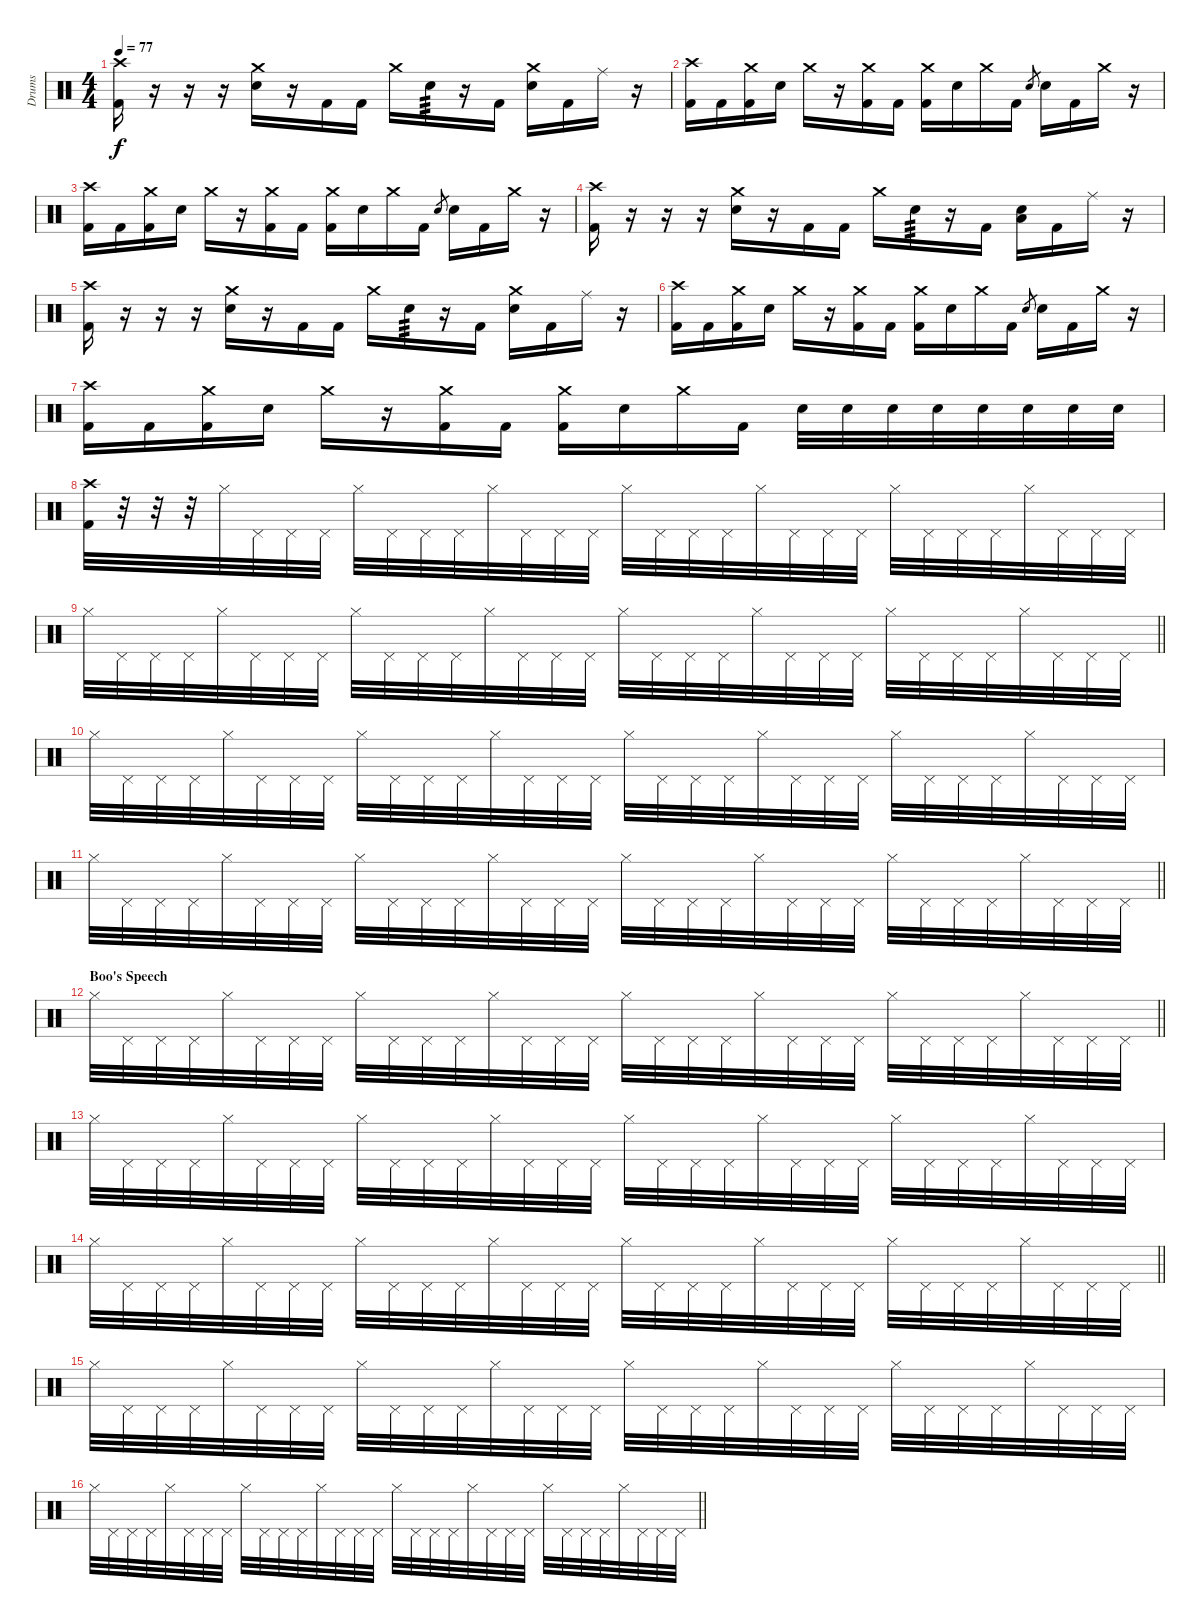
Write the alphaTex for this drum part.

\track ("Drums" "Drums") {instrument percussion}
\staff {score}
\articulation defaults
\ts (4 4)
\tempo 77
\clef neutral
\ks c
("Crash high (hit)" "Kick (hit) 2").16{dy f} r.16 r.16 r.16 ("Crash medium (hit)" "Snare (hit) 2").16 r.16 "Kick (hit) 2".16 "Kick (hit) 2".16 "Crash medium (hit)".16 "Snare (hit) 2".16{tp 3} r.16 "Kick (hit) 2".16 ("Crash medium (hit)" "Snare (hit) 2").16 "Kick (hit) 2".16 "Ride (middle)".16 r.16 |
("Crash high (hit)" "Kick (hit) 2").16 "Kick (hit) 2".16 ("Crash medium (hit)" "Kick (hit) 2").16 "Snare (hit) 2".16 "Crash medium (hit)".16 r.16 ("Crash medium (hit)" "Kick (hit) 2").16 "Kick (hit) 2".16 ("Crash medium (hit)" "Kick (hit) 2").16 "Snare (hit) 2".16 "Crash medium (hit)".16 "Kick (hit) 2".16 "Snare (hit) 2".8{gr} "Snare (hit) 2".16 "Kick (hit) 2".16 "Crash medium (hit)".16 r.16 |
("Crash high (hit)" "Kick (hit) 2").16 "Kick (hit) 2".16 ("Crash medium (hit)" "Kick (hit) 2").16 "Snare (hit) 2".16 "Crash medium (hit)".16 r.16 ("Crash medium (hit)" "Kick (hit) 2").16 "Kick (hit) 2".16 ("Crash medium (hit)" "Kick (hit) 2").16 "Snare (hit) 2".16 "Crash medium (hit)".16 "Kick (hit) 2".16 "Snare (hit) 2".8{gr} "Snare (hit) 2".16 "Kick (hit) 2".16 "Crash medium (hit)".16 r.16 |
("Crash high (hit)" "Kick (hit) 2").16 r.16 r.16 r.16 ("Crash medium (hit)" "Snare (hit) 2").16 r.16 "Kick (hit) 2".16 "Kick (hit) 2".16 "Crash medium (hit)".16 "Snare (hit) 2".16{tp 3} r.16 "Kick (hit) 2".16 ("Low Floor Tom (hit)" "Snare (hit) 2").16 "Kick (hit) 2".16 "Ride (middle)".16 r.16 |
("Crash high (hit)" "Kick (hit) 2").16 r.16 r.16 r.16 ("Crash medium (hit)" "Snare (hit) 2").16 r.16 "Kick (hit) 2".16 "Kick (hit) 2".16 "Crash medium (hit)".16 "Snare (hit) 2".16{tp 3} r.16 "Kick (hit) 2".16 ("Crash medium (hit)" "Snare (hit) 2").16 "Kick (hit) 2".16 "Ride (middle)".16 r.16 |
("Crash high (hit)" "Kick (hit) 2").16 "Kick (hit) 2".16 ("Crash medium (hit)" "Kick (hit) 2").16 "Snare (hit) 2".16 "Crash medium (hit)".16 r.16 ("Crash medium (hit)" "Kick (hit) 2").16 "Kick (hit) 2".16 ("Crash medium (hit)" "Kick (hit) 2").16 "Snare (hit) 2".16 "Crash medium (hit)".16 "Kick (hit) 2".16 "Snare (hit) 2".8{gr} "Snare (hit) 2".16 "Kick (hit) 2".16 "Crash medium (hit)".16 r.16 |
("Crash high (hit)" "Kick (hit) 2").16 "Kick (hit) 2".16 ("Crash medium (hit)" "Kick (hit) 2").16 "Snare (hit) 2".16 "Crash medium (hit)".16 r.16 ("Crash medium (hit)" "Kick (hit) 2").16 "Kick (hit) 2".16 ("Crash medium (hit)" "Kick (hit) 2").16 "Snare (hit) 2".16 "Crash medium (hit)".16 "Kick (hit) 2".16 "Snare (hit) 2".32 "Snare (hit) 2".32 "Snare (hit) 2".32 "Snare (hit) 2".32 "Snare (hit) 2".32 "Snare (hit) 2".32 "Snare (hit) 2".32 "Snare (hit) 2".32 |
("Crash high (hit)" "Kick (hit) 2").32 r.32 r.32 r.32 "Hi-Hat (closed)".32 "Pedal Hi-Hat (hit)".32 "Pedal Hi-Hat (hit)".32 "Pedal Hi-Hat (hit)".32 "Hi-Hat (closed)".32 "Pedal Hi-Hat (hit)".32 "Pedal Hi-Hat (hit)".32 "Pedal Hi-Hat (hit)".32 "Hi-Hat (closed)".32 "Pedal Hi-Hat (hit)".32 "Pedal Hi-Hat (hit)".32 "Pedal Hi-Hat (hit)".32 "Hi-Hat (closed)".32 "Pedal Hi-Hat (hit)".32 "Pedal Hi-Hat (hit)".32 "Pedal Hi-Hat (hit)".32 "Hi-Hat (closed)".32 "Pedal Hi-Hat (hit)".32 "Pedal Hi-Hat (hit)".32 "Pedal Hi-Hat (hit)".32 "Hi-Hat (closed)".32 "Pedal Hi-Hat (hit)".32 "Pedal Hi-Hat (hit)".32 "Pedal Hi-Hat (hit)".32 "Hi-Hat (closed)".32 "Pedal Hi-Hat (hit)".32 "Pedal Hi-Hat (hit)".32 "Pedal Hi-Hat (hit)".32 |
\barLineRight lightlight "Hi-Hat (closed)".32 "Pedal Hi-Hat (hit)".32 "Pedal Hi-Hat (hit)".32 "Pedal Hi-Hat (hit)".32 "Hi-Hat (closed)".32 "Pedal Hi-Hat (hit)".32 "Pedal Hi-Hat (hit)".32 "Pedal Hi-Hat (hit)".32 "Hi-Hat (closed)".32 "Pedal Hi-Hat (hit)".32 "Pedal Hi-Hat (hit)".32 "Pedal Hi-Hat (hit)".32 "Hi-Hat (closed)".32 "Pedal Hi-Hat (hit)".32 "Pedal Hi-Hat (hit)".32 "Pedal Hi-Hat (hit)".32 "Hi-Hat (closed)".32 "Pedal Hi-Hat (hit)".32 "Pedal Hi-Hat (hit)".32 "Pedal Hi-Hat (hit)".32 "Hi-Hat (closed)".32 "Pedal Hi-Hat (hit)".32 "Pedal Hi-Hat (hit)".32 "Pedal Hi-Hat (hit)".32 "Hi-Hat (closed)".32 "Pedal Hi-Hat (hit)".32 "Pedal Hi-Hat (hit)".32 "Pedal Hi-Hat (hit)".32 "Hi-Hat (closed)".32 "Pedal Hi-Hat (hit)".32 "Pedal Hi-Hat (hit)".32 "Pedal Hi-Hat (hit)".32
|
"Hi-Hat (closed)".32 "Pedal Hi-Hat (hit)".32 "Pedal Hi-Hat (hit)".32 "Pedal Hi-Hat (hit)".32 "Hi-Hat (closed)".32 "Pedal Hi-Hat (hit)".32 "Pedal Hi-Hat (hit)".32 "Pedal Hi-Hat (hit)".32 "Hi-Hat (closed)".32 "Pedal Hi-Hat (hit)".32 "Pedal Hi-Hat (hit)".32 "Pedal Hi-Hat (hit)".32 "Hi-Hat (closed)".32 "Pedal Hi-Hat (hit)".32 "Pedal Hi-Hat (hit)".32 "Pedal Hi-Hat (hit)".32 "Hi-Hat (closed)".32 "Pedal Hi-Hat (hit)".32 "Pedal Hi-Hat (hit)".32 "Pedal Hi-Hat (hit)".32 "Hi-Hat (closed)".32 "Pedal Hi-Hat (hit)".32 "Pedal Hi-Hat (hit)".32 "Pedal Hi-Hat (hit)".32 "Hi-Hat (closed)".32 "Pedal Hi-Hat (hit)".32 "Pedal Hi-Hat (hit)".32 "Pedal Hi-Hat (hit)".32 "Hi-Hat (closed)".32 "Pedal Hi-Hat (hit)".32 "Pedal Hi-Hat (hit)".32 "Pedal Hi-Hat (hit)".32 |
\barLineRight lightlight "Hi-Hat (closed)".32 "Pedal Hi-Hat (hit)".32 "Pedal Hi-Hat (hit)".32 "Pedal Hi-Hat (hit)".32 "Hi-Hat (closed)".32 "Pedal Hi-Hat (hit)".32 "Pedal Hi-Hat (hit)".32 "Pedal Hi-Hat (hit)".32 "Hi-Hat (closed)".32 "Pedal Hi-Hat (hit)".32 "Pedal Hi-Hat (hit)".32 "Pedal Hi-Hat (hit)".32 "Hi-Hat (closed)".32 "Pedal Hi-Hat (hit)".32 "Pedal Hi-Hat (hit)".32 "Pedal Hi-Hat (hit)".32 "Hi-Hat (closed)".32 "Pedal Hi-Hat (hit)".32 "Pedal Hi-Hat (hit)".32 "Pedal Hi-Hat (hit)".32 "Hi-Hat (closed)".32 "Pedal Hi-Hat (hit)".32 "Pedal Hi-Hat (hit)".32 "Pedal Hi-Hat (hit)".32 "Hi-Hat (closed)".32 "Pedal Hi-Hat (hit)".32 "Pedal Hi-Hat (hit)".32 "Pedal Hi-Hat (hit)".32 "Hi-Hat (closed)".32 "Pedal Hi-Hat (hit)".32 "Pedal Hi-Hat (hit)".32 "Pedal Hi-Hat (hit)".32
|
\section ("" "Boo's Speech")
\barLineRight lightlight "Hi-Hat (closed)".32 "Pedal Hi-Hat (hit)".32 "Pedal Hi-Hat (hit)".32 "Pedal Hi-Hat (hit)".32 "Hi-Hat (closed)".32 "Pedal Hi-Hat (hit)".32 "Pedal Hi-Hat (hit)".32 "Pedal Hi-Hat (hit)".32 "Hi-Hat (closed)".32 "Pedal Hi-Hat (hit)".32 "Pedal Hi-Hat (hit)".32 "Pedal Hi-Hat (hit)".32 "Hi-Hat (closed)".32 "Pedal Hi-Hat (hit)".32 "Pedal Hi-Hat (hit)".32 "Pedal Hi-Hat (hit)".32 "Hi-Hat (closed)".32 "Pedal Hi-Hat (hit)".32 "Pedal Hi-Hat (hit)".32 "Pedal Hi-Hat (hit)".32 "Hi-Hat (closed)".32 "Pedal Hi-Hat (hit)".32 "Pedal Hi-Hat (hit)".32 "Pedal Hi-Hat (hit)".32 "Hi-Hat (closed)".32 "Pedal Hi-Hat (hit)".32 "Pedal Hi-Hat (hit)".32 "Pedal Hi-Hat (hit)".32 "Hi-Hat (closed)".32 "Pedal Hi-Hat (hit)".32 "Pedal Hi-Hat (hit)".32 "Pedal Hi-Hat (hit)".32
|
"Hi-Hat (closed)".32 "Pedal Hi-Hat (hit)".32 "Pedal Hi-Hat (hit)".32 "Pedal Hi-Hat (hit)".32 "Hi-Hat (closed)".32 "Pedal Hi-Hat (hit)".32 "Pedal Hi-Hat (hit)".32 "Pedal Hi-Hat (hit)".32 "Hi-Hat (closed)".32 "Pedal Hi-Hat (hit)".32 "Pedal Hi-Hat (hit)".32 "Pedal Hi-Hat (hit)".32 "Hi-Hat (closed)".32 "Pedal Hi-Hat (hit)".32 "Pedal Hi-Hat (hit)".32 "Pedal Hi-Hat (hit)".32 "Hi-Hat (closed)".32 "Pedal Hi-Hat (hit)".32 "Pedal Hi-Hat (hit)".32 "Pedal Hi-Hat (hit)".32 "Hi-Hat (closed)".32 "Pedal Hi-Hat (hit)".32 "Pedal Hi-Hat (hit)".32 "Pedal Hi-Hat (hit)".32 "Hi-Hat (closed)".32 "Pedal Hi-Hat (hit)".32 "Pedal Hi-Hat (hit)".32 "Pedal Hi-Hat (hit)".32 "Hi-Hat (closed)".32 "Pedal Hi-Hat (hit)".32 "Pedal Hi-Hat (hit)".32 "Pedal Hi-Hat (hit)".32 |
\barLineRight lightlight "Hi-Hat (closed)".32 "Pedal Hi-Hat (hit)".32 "Pedal Hi-Hat (hit)".32 "Pedal Hi-Hat (hit)".32 "Hi-Hat (closed)".32 "Pedal Hi-Hat (hit)".32 "Pedal Hi-Hat (hit)".32 "Pedal Hi-Hat (hit)".32 "Hi-Hat (closed)".32 "Pedal Hi-Hat (hit)".32 "Pedal Hi-Hat (hit)".32 "Pedal Hi-Hat (hit)".32 "Hi-Hat (closed)".32 "Pedal Hi-Hat (hit)".32 "Pedal Hi-Hat (hit)".32 "Pedal Hi-Hat (hit)".32 "Hi-Hat (closed)".32 "Pedal Hi-Hat (hit)".32 "Pedal Hi-Hat (hit)".32 "Pedal Hi-Hat (hit)".32 "Hi-Hat (closed)".32 "Pedal Hi-Hat (hit)".32 "Pedal Hi-Hat (hit)".32 "Pedal Hi-Hat (hit)".32 "Hi-Hat (closed)".32 "Pedal Hi-Hat (hit)".32 "Pedal Hi-Hat (hit)".32 "Pedal Hi-Hat (hit)".32 "Hi-Hat (closed)".32 "Pedal Hi-Hat (hit)".32 "Pedal Hi-Hat (hit)".32 "Pedal Hi-Hat (hit)".32
|
"Hi-Hat (closed)".32 "Pedal Hi-Hat (hit)".32 "Pedal Hi-Hat (hit)".32 "Pedal Hi-Hat (hit)".32 "Hi-Hat (closed)".32 "Pedal Hi-Hat (hit)".32 "Pedal Hi-Hat (hit)".32 "Pedal Hi-Hat (hit)".32 "Hi-Hat (closed)".32 "Pedal Hi-Hat (hit)".32 "Pedal Hi-Hat (hit)".32 "Pedal Hi-Hat (hit)".32 "Hi-Hat (closed)".32 "Pedal Hi-Hat (hit)".32 "Pedal Hi-Hat (hit)".32 "Pedal Hi-Hat (hit)".32 "Hi-Hat (closed)".32 "Pedal Hi-Hat (hit)".32 "Pedal Hi-Hat (hit)".32 "Pedal Hi-Hat (hit)".32 "Hi-Hat (closed)".32 "Pedal Hi-Hat (hit)".32 "Pedal Hi-Hat (hit)".32 "Pedal Hi-Hat (hit)".32 "Hi-Hat (closed)".32 "Pedal Hi-Hat (hit)".32 "Pedal Hi-Hat (hit)".32 "Pedal Hi-Hat (hit)".32 "Hi-Hat (closed)".32 "Pedal Hi-Hat (hit)".32 "Pedal Hi-Hat (hit)".32 "Pedal Hi-Hat (hit)".32 |
\barLineRight lightlight "Hi-Hat (closed)".32 "Pedal Hi-Hat (hit)".32 "Pedal Hi-Hat (hit)".32 "Pedal Hi-Hat (hit)".32 "Hi-Hat (closed)".32 "Pedal Hi-Hat (hit)".32 "Pedal Hi-Hat (hit)".32 "Pedal Hi-Hat (hit)".32 "Hi-Hat (closed)".32 "Pedal Hi-Hat (hit)".32 "Pedal Hi-Hat (hit)".32 "Pedal Hi-Hat (hit)".32 "Hi-Hat (closed)".32 "Pedal Hi-Hat (hit)".32 "Pedal Hi-Hat (hit)".32 "Pedal Hi-Hat (hit)".32 "Hi-Hat (closed)".32 "Pedal Hi-Hat (hit)".32 "Pedal Hi-Hat (hit)".32 "Pedal Hi-Hat (hit)".32 "Hi-Hat (closed)".32 "Pedal Hi-Hat (hit)".32 "Pedal Hi-Hat (hit)".32 "Pedal Hi-Hat (hit)".32 "Hi-Hat (closed)".32 "Pedal Hi-Hat (hit)".32 "Pedal Hi-Hat (hit)".32 "Pedal Hi-Hat (hit)".32 "Hi-Hat (closed)".32 "Pedal Hi-Hat (hit)".32 "Pedal Hi-Hat (hit)".32 "Pedal Hi-Hat (hit)".32
